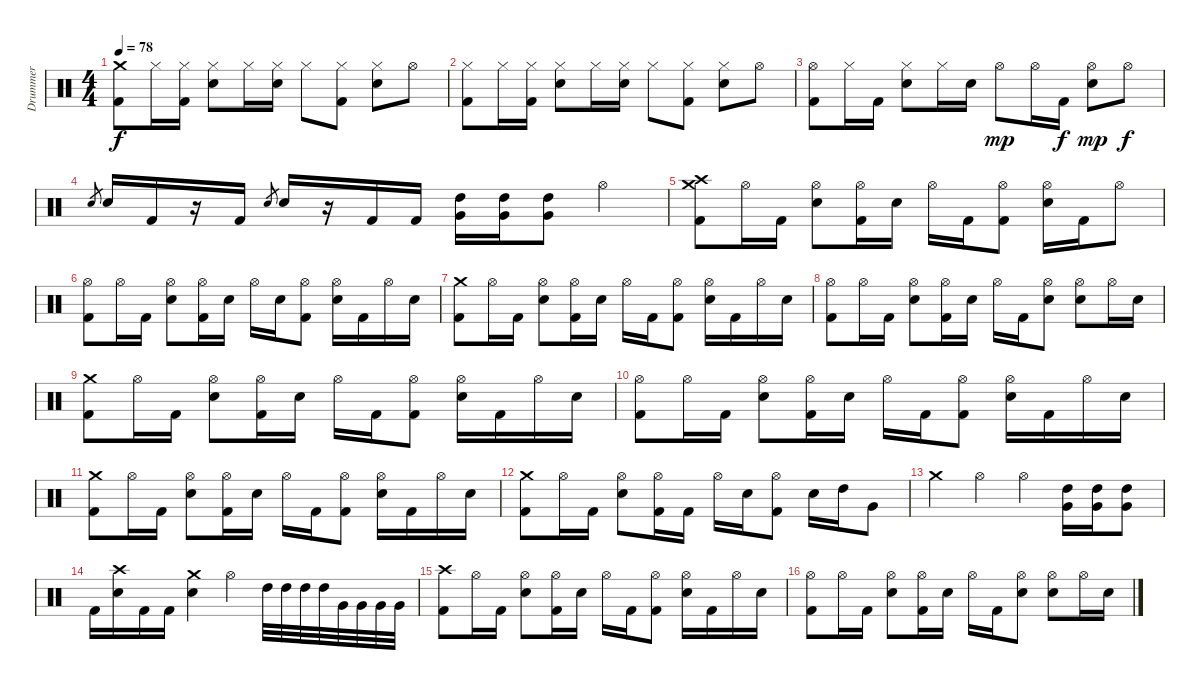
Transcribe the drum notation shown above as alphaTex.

\track ("Drummer" "Drummer") {instrument percussion}
\staff {score}
\articulation defaults
\ts (4 4)
\tempo 78
\clef neutral
\ks c
("Crash medium (hit)" "Kick (hit) 2").8{dy f} "Hi-Hat (closed)".16 ("Hi-Hat (closed)" "Kick (hit) 2").16 ("Hi-Hat (closed)" "Electric Snare (hit)").8 "Hi-Hat (closed)".16 ("Hi-Hat (closed)" "Electric Snare (hit)").16 "Hi-Hat (closed)".8 ("Hi-Hat (closed)" "Kick (hit) 2").8 ("Hi-Hat (closed)" "Electric Snare (hit)").8 "Hi-Hat (open)".8 |
("Hi-Hat (closed)" "Kick (hit) 2").8 "Hi-Hat (closed)".16 ("Hi-Hat (closed)" "Kick (hit) 2").16 ("Hi-Hat (closed)" "Electric Snare (hit)").8 "Hi-Hat (closed)".16 ("Hi-Hat (closed)" "Electric Snare (hit)").16 "Hi-Hat (closed)".8 ("Hi-Hat (closed)" "Kick (hit) 2").8 ("Hi-Hat (closed)" "Electric Snare (hit)").8 "Hi-Hat (open)".8 |
("Hi-Hat (open)" "Kick (hit) 2").8 "Hi-Hat (closed)".16 "Kick (hit) 2".16 ("Hi-Hat (closed)" "Electric Snare (hit)").8 "Hi-Hat (closed)".16 "Electric Snare (hit)".16 "Hi-Hat (open)".8{dy mp} "Hi-Hat (open)".16 "Kick (hit) 2".16{dy f} ("Hi-Hat (open)" "Electric Snare (hit)").8{dy mp} "Hi-Hat (open)".8{dy f} |
"Electric Snare (hit)".8{gr beam merge} "Electric Snare (hit)".16 "Kick (hit) 2".16 r.16 "Kick (hit) 2".16 "Electric Snare (hit)".8{gr beam merge} "Electric Snare (hit)".16 r.16 "Kick (hit) 2".16 "Kick (hit) 2".16 ("High Tom (hit)" "Very Low Tom (hit)").16 ("High Tom (hit)" "Very Low Tom (hit)").16 ("High Tom (hit)" "Very Low Tom (hit)").8 "Hi-Hat (open)".4 |
("Crash medium (hit)" "Crash high (hit)" "Kick (hit) 2").8 "Hi-Hat (open)".16 "Kick (hit) 2".16 ("Hi-Hat (open)" "Electric Snare (hit)").8 ("Hi-Hat (open)" "Kick (hit) 2").16 "Electric Snare (hit)".16 "Hi-Hat (open)".16 "Kick (hit) 2".16 ("Hi-Hat (open)" "Kick (hit) 2").8 ("Hi-Hat (open)" "Electric Snare (hit)").16 "Kick (hit) 2".16 "Hi-Hat (open)".8 |
("Hi-Hat (open)" "Kick (hit) 2").8 "Hi-Hat (open)".16 "Kick (hit) 2".16 ("Hi-Hat (open)" "Electric Snare (hit)").8 ("Hi-Hat (open)" "Kick (hit) 2").16 "Electric Snare (hit)".16 "Hi-Hat (open)".16 "Electric Snare (hit)".16 ("Hi-Hat (open)" "Kick (hit) 2").8 ("Hi-Hat (open)" "Electric Snare (hit)").16 "Kick (hit) 2".16 "Hi-Hat (open)".16 "Electric Snare (hit)".16 |
("Crash medium (hit)" "Kick (hit) 2").8 "Hi-Hat (open)".16 "Kick (hit) 2".16 ("Hi-Hat (open)" "Electric Snare (hit)").8 ("Hi-Hat (open)" "Kick (hit) 2").16 "Electric Snare (hit)".16 "Hi-Hat (open)".16 "Kick (hit) 2".16 ("Hi-Hat (open)" "Kick (hit) 2").8 ("Hi-Hat (open)" "Electric Snare (hit)").16 "Kick (hit) 2".16 "Hi-Hat (open)".16 "Electric Snare (hit)".16 |
("Hi-Hat (open)" "Kick (hit) 2").8 "Hi-Hat (open)".16 "Kick (hit) 2".16 ("Hi-Hat (open)" "Electric Snare (hit)").8 ("Hi-Hat (open)" "Kick (hit) 2").16 "Electric Snare (hit)".16 "Hi-Hat (open)".16 "Kick (hit) 2".16 ("Hi-Hat (open)" "Electric Snare (hit)").8 ("Hi-Hat (open)" "Electric Snare (hit)").8 "Hi-Hat (open)".16 "Electric Snare (hit)".16 |
("Crash medium (hit)" "Kick (hit) 2").8 "Hi-Hat (open)".16 "Kick (hit) 2".16 ("Hi-Hat (open)" "Electric Snare (hit)").8 ("Hi-Hat (open)" "Kick (hit) 2").16 "Electric Snare (hit)".16 "Hi-Hat (open)".16 "Kick (hit) 2".16 ("Hi-Hat (open)" "Kick (hit) 2").8 ("Hi-Hat (open)" "Electric Snare (hit)").16 "Kick (hit) 2".16 "Hi-Hat (open)".16 "Electric Snare (hit)".16 |
("Hi-Hat (open)" "Kick (hit) 2").8 "Hi-Hat (open)".16 "Kick (hit) 2".16 ("Hi-Hat (open)" "Electric Snare (hit)").8 ("Hi-Hat (open)" "Kick (hit) 2").16 "Electric Snare (hit)".16 "Hi-Hat (open)".16 "Kick (hit) 2".16 ("Hi-Hat (open)" "Kick (hit) 2").8 ("Hi-Hat (open)" "Electric Snare (hit)").16 "Kick (hit) 2".16 "Hi-Hat (open)".16 "Electric Snare (hit)".16 |
("Crash medium (hit)" "Kick (hit) 2").8 "Hi-Hat (open)".16 "Kick (hit) 2".16 ("Hi-Hat (open)" "Electric Snare (hit)").8 ("Hi-Hat (open)" "Kick (hit) 2").16 "Electric Snare (hit)".16 "Hi-Hat (open)".16 "Kick (hit) 2".16 ("Hi-Hat (open)" "Kick (hit) 2").8 ("Hi-Hat (open)" "Electric Snare (hit)").16 "Kick (hit) 2".16 "Hi-Hat (open)".16 "Electric Snare (hit)".16 |
("Crash medium (hit)" "Kick (hit) 2").8 "Hi-Hat (open)".16 "Kick (hit) 2".16 ("Hi-Hat (open)" "Electric Snare (hit)").8 ("Hi-Hat (open)" "Kick (hit) 2").16 "Kick (hit) 2".16 "Hi-Hat (open)".16 "Electric Snare (hit)".16 ("Hi-Hat (open)" "Kick (hit) 2").8 "Electric Snare (hit)".16 "High Tom (hit)".16 "Very Low Tom (hit)".8 |
"Crash medium (hit)".4 "Hi-Hat (open)".4 "Hi-Hat (open)".4 ("High Tom (hit)" "Very Low Tom (hit)").16 ("High Tom (hit)" "Very Low Tom (hit)").16 ("High Tom (hit)" "Very Low Tom (hit)").8 |
"Kick (hit) 2".16 ("Crash high (hit)" "Electric Snare (hit)").16 "Kick (hit) 2".16 "Kick (hit) 2".16 ("Crash medium (hit)" "Electric Snare (hit)").4 "Hi-Hat (open)".4 "High Tom (hit)".32 "High Tom (hit)".32 "High Tom (hit)".32 "High Tom (hit)".32 "Very Low Tom (hit)".32 "Very Low Tom (hit)".32 "Very Low Tom (hit)".32 "Very Low Tom (hit)".32 |
("Crash high (hit)" "Kick (hit) 2").8 "Hi-Hat (open)".16 "Kick (hit) 2".16 ("Hi-Hat (open)" "Electric Snare (hit)").8 ("Hi-Hat (open)" "Kick (hit) 2").16 "Electric Snare (hit)".16 "Hi-Hat (open)".16 "Kick (hit) 2".16 ("Hi-Hat (open)" "Kick (hit) 2").8 ("Hi-Hat (open)" "Electric Snare (hit)").16 "Kick (hit) 2".16 "Hi-Hat (open)".16 "Electric Snare (hit)".16 |
("Hi-Hat (open)" "Kick (hit) 2").8 "Hi-Hat (open)".16 "Kick (hit) 2".16 ("Hi-Hat (open)" "Electric Snare (hit)").8 ("Hi-Hat (open)" "Kick (hit) 2").16 "Electric Snare (hit)".16 "Hi-Hat (open)".16 "Kick (hit) 2".16 ("Hi-Hat (open)" "Electric Snare (hit)").8 ("Hi-Hat (open)" "Electric Snare (hit)").8 "Hi-Hat (open)".16 "Electric Snare (hit)".16
